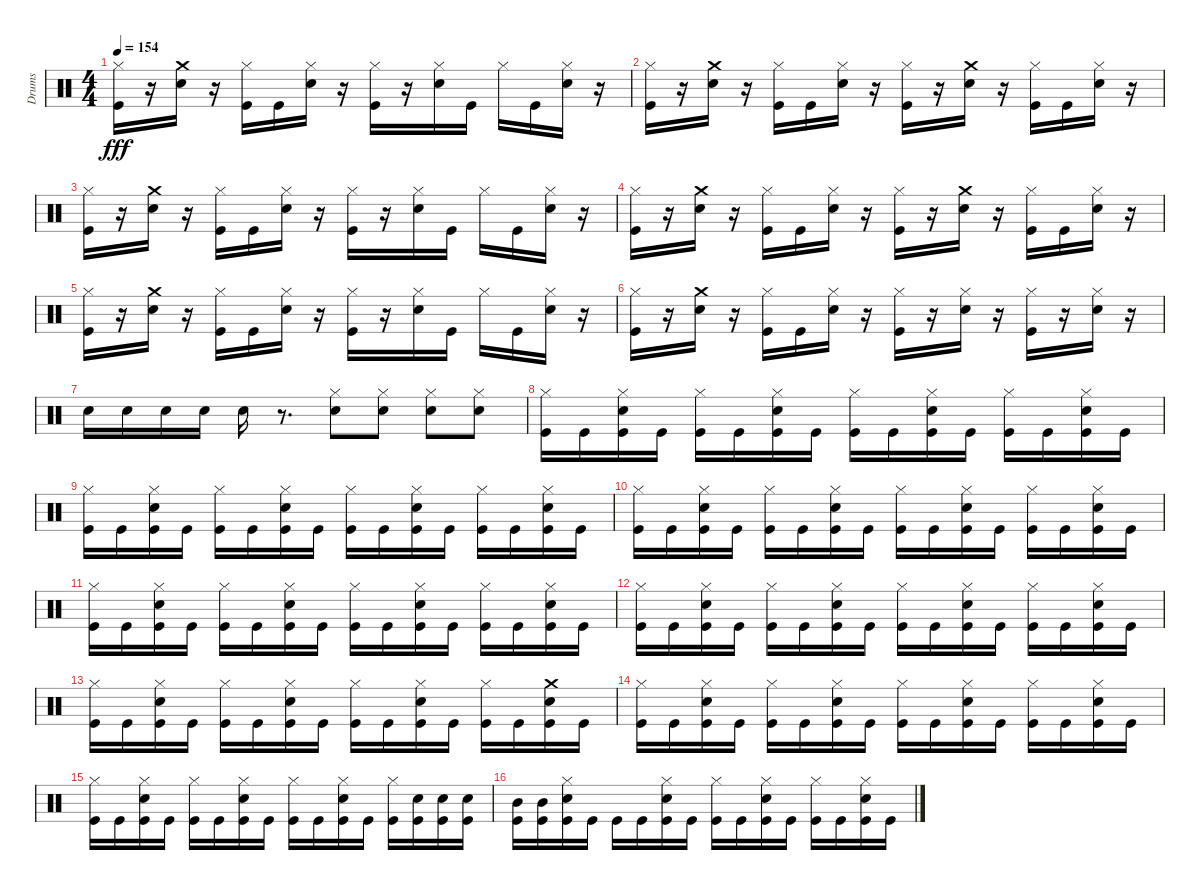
\track ("Drums" "Drums") {instrument percussion}
\staff {score}
\articulation defaults
\ts (4 4)
\tempo 154
\clef neutral
\ks c
("Hi-Hat (closed)" "Kick (hit)").16{dy fff} r.16 ("Crash medium (hit)" "Snare (hit) 2").16 r.16 ("Kick (hit)" "Hi-Hat (closed)").16 "Kick (hit)".16 ("Snare (hit) 2" "Hi-Hat (closed)").16 r.16 ("Hi-Hat (closed)" "Kick (hit)").16 r.16 ("Snare (hit) 2" "Hi-Hat (closed)").16 "Kick (hit)".16 "Hi-Hat (closed)".16 "Kick (hit)".16 ("Hi-Hat (closed)" "Snare (hit) 2").16 r.16 |
("Hi-Hat (closed)" "Kick (hit)").16 r.16 ("Crash medium (hit)" "Snare (hit) 2").16 r.16 ("Kick (hit)" "Hi-Hat (closed)").16 "Kick (hit)".16 ("Snare (hit) 2" "Hi-Hat (closed)").16 r.16 ("Hi-Hat (closed)" "Kick (hit)").16 r.16 ("Crash medium (hit)" "Snare (hit) 2").16 r.16 ("Hi-Hat (closed)" "Kick (hit)").16 "Kick (hit)".16 ("Hi-Hat (closed)" "Snare (hit) 2").16 r.16 |
("Hi-Hat (closed)" "Kick (hit)").16 r.16 ("Crash medium (hit)" "Snare (hit) 2").16 r.16 ("Kick (hit)" "Hi-Hat (closed)").16 "Kick (hit)".16 ("Snare (hit) 2" "Hi-Hat (closed)").16 r.16 ("Hi-Hat (closed)" "Kick (hit)").16 r.16 ("Snare (hit) 2" "Hi-Hat (closed)").16 "Kick (hit)".16 "Hi-Hat (closed)".16 "Kick (hit)".16 ("Hi-Hat (closed)" "Snare (hit) 2").16 r.16 |
("Hi-Hat (closed)" "Kick (hit)").16 r.16 ("Crash medium (hit)" "Snare (hit) 2").16 r.16 ("Kick (hit)" "Hi-Hat (closed)").16 "Kick (hit)".16 ("Snare (hit) 2" "Hi-Hat (closed)").16 r.16 ("Hi-Hat (closed)" "Kick (hit)").16 r.16 ("Crash medium (hit)" "Snare (hit) 2").16 r.16 ("Hi-Hat (closed)" "Kick (hit)").16 "Kick (hit)".16 ("Hi-Hat (closed)" "Snare (hit) 2").16 r.16 |
("Hi-Hat (closed)" "Kick (hit)").16 r.16 ("Crash medium (hit)" "Snare (hit) 2").16 r.16 ("Kick (hit)" "Hi-Hat (closed)").16 "Kick (hit)".16 ("Snare (hit) 2" "Hi-Hat (closed)").16 r.16 ("Hi-Hat (closed)" "Kick (hit)").16 r.16 ("Snare (hit) 2" "Hi-Hat (closed)").16 "Kick (hit)".16 "Hi-Hat (closed)".16 "Kick (hit)".16 ("Hi-Hat (closed)" "Snare (hit) 2").16 r.16 |
("Hi-Hat (closed)" "Kick (hit)").16 r.16 ("Crash medium (hit)" "Snare (hit) 2").16 r.16 ("Kick (hit)" "Hi-Hat (closed)").16 "Kick (hit)".16 ("Snare (hit) 2" "Hi-Hat (closed)").16 r.16 ("Hi-Hat (closed)" "Kick (hit)").16 r.16 ("Hi-Hat (closed)" "Snare (hit) 2").16 r.16 ("Hi-Hat (closed)" "Kick (hit)").16 r.16 ("Hi-Hat (closed)" "Snare (hit) 2").16 r.16 |
"Snare (hit) 2".16 "Snare (hit) 2".16 "Snare (hit) 2".16 "Snare (hit) 2".16 "Snare (hit) 2".16 r.8{d} ("Hi-Hat (closed)" "Snare (hit) 2").8 ("Hi-Hat (closed)" "Snare (hit) 2").8 ("Hi-Hat (closed)" "Snare (hit) 2").8 ("Hi-Hat (closed)" "Snare (hit) 2").8 |
("Kick (hit)" "Hi-Hat (closed)").16 "Kick (hit)".16 ("Kick (hit)" "Snare (hit) 2" "Hi-Hat (closed)").16 "Kick (hit)".16 ("Kick (hit)" "Hi-Hat (closed)").16 "Kick (hit)".16 ("Kick (hit)" "Snare (hit) 2" "Hi-Hat (closed)").16 "Kick (hit)".16 ("Kick (hit)" "Hi-Hat (closed)").16 "Kick (hit)".16 ("Kick (hit)" "Snare (hit) 2" "Hi-Hat (closed)").16 "Kick (hit)".16 ("Kick (hit)" "Hi-Hat (closed)").16 "Kick (hit)".16 ("Kick (hit)" "Snare (hit) 2" "Hi-Hat (closed)").16 "Kick (hit)".16 |
("Kick (hit)" "Hi-Hat (closed)").16 "Kick (hit)".16 ("Kick (hit)" "Snare (hit) 2" "Hi-Hat (closed)").16 "Kick (hit)".16 ("Kick (hit)" "Hi-Hat (closed)").16 "Kick (hit)".16 ("Kick (hit)" "Snare (hit) 2" "Hi-Hat (closed)").16 "Kick (hit)".16 ("Kick (hit)" "Hi-Hat (closed)").16 "Kick (hit)".16 ("Kick (hit)" "Snare (hit) 2" "Hi-Hat (closed)").16 "Kick (hit)".16 ("Kick (hit)" "Hi-Hat (closed)").16 "Kick (hit)".16 ("Kick (hit)" "Snare (hit) 2" "Hi-Hat (closed)").16 "Kick (hit)".16 |
("Kick (hit)" "Hi-Hat (closed)").16 "Kick (hit)".16 ("Kick (hit)" "Snare (hit) 2" "Hi-Hat (closed)").16 "Kick (hit)".16 ("Kick (hit)" "Hi-Hat (closed)").16 "Kick (hit)".16 ("Kick (hit)" "Snare (hit) 2" "Hi-Hat (closed)").16 "Kick (hit)".16 ("Kick (hit)" "Hi-Hat (closed)").16 "Kick (hit)".16 ("Kick (hit)" "Snare (hit) 2" "Hi-Hat (closed)").16 "Kick (hit)".16 ("Kick (hit)" "Hi-Hat (closed)").16 "Kick (hit)".16 ("Kick (hit)" "Snare (hit) 2" "Hi-Hat (closed)").16 "Kick (hit)".16 |
("Kick (hit)" "Hi-Hat (closed)").16 "Kick (hit)".16 ("Kick (hit)" "Snare (hit) 2" "Hi-Hat (closed)").16 "Kick (hit)".16 ("Kick (hit)" "Hi-Hat (closed)").16 "Kick (hit)".16 ("Kick (hit)" "Snare (hit) 2" "Hi-Hat (closed)").16 "Kick (hit)".16 ("Kick (hit)" "Hi-Hat (closed)").16 "Kick (hit)".16 ("Kick (hit)" "Snare (hit) 2" "Hi-Hat (closed)").16 "Kick (hit)".16 ("Kick (hit)" "Hi-Hat (closed)").16 "Kick (hit)".16 ("Kick (hit)" "Snare (hit) 2" "Hi-Hat (closed)").16 "Kick (hit)".16 |
("Kick (hit)" "Hi-Hat (closed)").16 "Kick (hit)".16 ("Kick (hit)" "Snare (hit) 2" "Hi-Hat (closed)").16 "Kick (hit)".16 ("Kick (hit)" "Hi-Hat (closed)").16 "Kick (hit)".16 ("Kick (hit)" "Snare (hit) 2" "Hi-Hat (closed)").16 "Kick (hit)".16 ("Kick (hit)" "Hi-Hat (closed)").16 "Kick (hit)".16 ("Kick (hit)" "Snare (hit) 2" "Hi-Hat (closed)").16 "Kick (hit)".16 ("Kick (hit)" "Hi-Hat (closed)").16 "Kick (hit)".16 ("Kick (hit)" "Snare (hit) 2" "Hi-Hat (closed)").16 "Kick (hit)".16 |
("Kick (hit)" "Hi-Hat (closed)").16 "Kick (hit)".16 ("Kick (hit)" "Snare (hit) 2" "Hi-Hat (closed)").16 "Kick (hit)".16 ("Kick (hit)" "Hi-Hat (closed)").16 "Kick (hit)".16 ("Kick (hit)" "Snare (hit) 2" "Hi-Hat (closed)").16 "Kick (hit)".16 ("Kick (hit)" "Hi-Hat (closed)").16 "Kick (hit)".16 ("Kick (hit)" "Snare (hit) 2" "Hi-Hat (closed)").16 "Kick (hit)".16 ("Kick (hit)" "Hi-Hat (closed)").16 "Kick (hit)".16 ("Crash medium (hit)" "Kick (hit)" "Snare (hit) 2").16 "Kick (hit)".16 |
("Kick (hit)" "Hi-Hat (closed)").16 "Kick (hit)".16 ("Kick (hit)" "Snare (hit) 2" "Hi-Hat (closed)").16 "Kick (hit)".16 ("Kick (hit)" "Hi-Hat (closed)").16 "Kick (hit)".16 ("Kick (hit)" "Snare (hit) 2" "Hi-Hat (closed)").16 "Kick (hit)".16 ("Kick (hit)" "Hi-Hat (closed)").16 "Kick (hit)".16 ("Kick (hit)" "Snare (hit) 2" "Hi-Hat (closed)").16 "Kick (hit)".16 ("Kick (hit)" "Hi-Hat (closed)").16 "Kick (hit)".16 ("Kick (hit)" "Snare (hit) 2" "Hi-Hat (closed)").16 "Kick (hit)".16 |
("Kick (hit)" "Hi-Hat (closed)").16 "Kick (hit)".16 ("Kick (hit)" "Snare (hit) 2" "Hi-Hat (closed)").16 "Kick (hit)".16 ("Kick (hit)" "Hi-Hat (closed)").16 "Kick (hit)".16 ("Kick (hit)" "Snare (hit) 2" "Hi-Hat (closed)").16 "Kick (hit)".16 ("Kick (hit)" "Hi-Hat (closed)").16 "Kick (hit)".16 ("Kick (hit)" "Snare (hit) 2" "Hi-Hat (closed)").16 "Kick (hit)".16 ("Hi-Hat (closed)" "Kick (hit)").16 ("Snare (hit) 2" "Kick (hit)").16 ("Snare (hit) 2" "Kick (hit)").16 ("Snare (hit) 2" "Kick (hit)").16 |
("Mid Tom (hit)" "Kick (hit)").16 ("Mid Tom (hit)" "Kick (hit)").16 ("Hi-Hat (closed)" "Snare (hit) 2" "Kick (hit)").16 "Kick (hit)".16 "Kick (hit)".16 "Kick (hit)".16 ("Kick (hit)" "Snare (hit) 2" "Hi-Hat (closed)").16 "Kick (hit)".16 ("Kick (hit)" "Hi-Hat (closed)").16 "Kick (hit)".16 ("Kick (hit)" "Snare (hit) 2" "Hi-Hat (closed)").16 "Kick (hit)".16 ("Kick (hit)" "Hi-Hat (closed)").16 "Kick (hit)".16 ("Kick (hit)" "Snare (hit) 2" "Hi-Hat (closed)").16 "Kick (hit)".16
